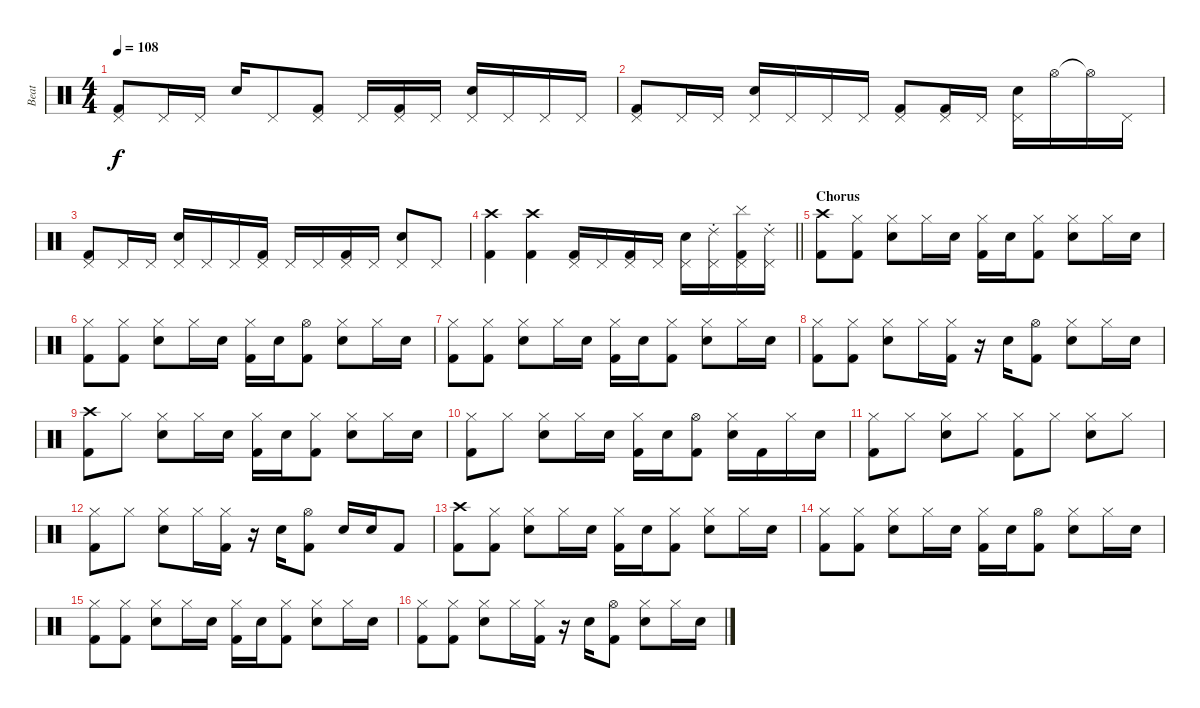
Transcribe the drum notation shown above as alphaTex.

\track ("Beat" "Beat") {instrument percussion}
\staff {score}
\articulation defaults
\ts (4 4)
\tempo 108
\clef neutral
\ks c
("Pedal Hi-Hat (hit)" "Kick (hit) 2").8{dy f} "Pedal Hi-Hat (hit)".16 "Pedal Hi-Hat (hit)".16 "Snare (hit) 2".16 "Pedal Hi-Hat (hit)".8 ("Pedal Hi-Hat (hit)" "Kick (hit) 2").8 "Pedal Hi-Hat (hit)".16 ("Pedal Hi-Hat (hit)" "Kick (hit) 2").16 "Pedal Hi-Hat (hit)".16 ("Pedal Hi-Hat (hit)" "Snare (hit) 2").16 "Pedal Hi-Hat (hit)".16 "Pedal Hi-Hat (hit)".16 "Pedal Hi-Hat (hit)".16 |
("Pedal Hi-Hat (hit)" "Kick (hit) 2").8 "Pedal Hi-Hat (hit)".16 "Pedal Hi-Hat (hit)".16 ("Pedal Hi-Hat (hit)" "Snare (hit) 2").16 "Pedal Hi-Hat (hit)".16 "Pedal Hi-Hat (hit)".16 "Pedal Hi-Hat (hit)".16 ("Pedal Hi-Hat (hit)" "Kick (hit) 2").8 ("Pedal Hi-Hat (hit)" "Kick (hit) 2").16 "Pedal Hi-Hat (hit)".16 ("Pedal Hi-Hat (hit)" "Snare (hit) 2").16 "Hi-Hat (open)".16 "Hi-Hat (open)"{t}.16 "Pedal Hi-Hat (hit)".16 |
("Pedal Hi-Hat (hit)" "Kick (hit) 2").8 "Pedal Hi-Hat (hit)".16 "Pedal Hi-Hat (hit)".16 ("Pedal Hi-Hat (hit)" "Snare (hit) 2").16 "Pedal Hi-Hat (hit)".16 "Pedal Hi-Hat (hit)".16 ("Pedal Hi-Hat (hit)" "Kick (hit) 2").16 "Pedal Hi-Hat (hit)".16 "Pedal Hi-Hat (hit)".16 ("Pedal Hi-Hat (hit)" "Kick (hit) 2").16 "Pedal Hi-Hat (hit)".16 ("Pedal Hi-Hat (hit)" "Snare (hit) 2").8 "Pedal Hi-Hat (hit)".8 |
\barLineRight lightlight
("Crash high (hit)" "Kick (hit) 2").4 ("Crash high (hit)" "Kick (hit) 2").4 ("Pedal Hi-Hat (hit)" "Kick (hit) 2").16 "Pedal Hi-Hat (hit)".16 ("Pedal Hi-Hat (hit)" "Kick (hit) 2").16 "Pedal Hi-Hat (hit)".16 ("Pedal Hi-Hat (hit)" "Snare (hit) 2").16 ("Pedal Hi-Hat (hit)" "Ride (choke) 2").16 ("Pedal Hi-Hat (hit)" "Cymbal (hit)" "Kick (hit) 2").16 ("Pedal Hi-Hat (hit)" "Ride (choke) 2").16 |
\section ("" "Chorus")
("Crash high (hit)" "Kick (hit) 2").8 ("Hi-Hat (closed)" "Kick (hit) 2").8 ("Hi-Hat (closed)" "Snare (hit) 2").8 "Hi-Hat (closed)".16 "Snare (hit) 2".16 ("Hi-Hat (closed)" "Kick (hit) 2").16 "Snare (hit) 2".16 ("Hi-Hat (closed)" "Kick (hit) 2").8 ("Hi-Hat (closed)" "Snare (hit) 2").8 "Hi-Hat (closed)".16 "Snare (hit) 2".16 |
("Hi-Hat (closed)" "Kick (hit) 2").8 ("Hi-Hat (closed)" "Kick (hit) 2").8 ("Hi-Hat (closed)" "Snare (hit) 2").8 "Hi-Hat (closed)".16 "Snare (hit) 2".16 ("Hi-Hat (closed)" "Kick (hit) 2").16 "Snare (hit) 2".16 ("Hi-Hat (open)" "Kick (hit) 2").8 ("Hi-Hat (closed)" "Snare (hit) 2").8 "Hi-Hat (closed)".16 "Snare (hit) 2".16 |
("Hi-Hat (closed)" "Kick (hit) 2").8 ("Hi-Hat (closed)" "Kick (hit) 2").8 ("Hi-Hat (closed)" "Snare (hit) 2").8 "Hi-Hat (closed)".16 "Snare (hit) 2".16 ("Hi-Hat (closed)" "Kick (hit) 2").16 "Snare (hit) 2".16 ("Hi-Hat (closed)" "Kick (hit) 2").8 ("Hi-Hat (closed)" "Snare (hit) 2").8 "Hi-Hat (closed)".16 "Snare (hit) 2".16 |
("Hi-Hat (closed)" "Kick (hit) 2").8 ("Hi-Hat (closed)" "Kick (hit) 2").8 ("Hi-Hat (closed)" "Snare (hit) 2").8 "Hi-Hat (closed)".16 ("Hi-Hat (closed)" "Kick (hit) 2").16 r.16 "Snare (hit) 2".16 ("Hi-Hat (open)" "Kick (hit) 2").8 ("Hi-Hat (closed)" "Snare (hit) 2").8 "Hi-Hat (closed)".16 "Snare (hit) 2".16 |
("Crash high (hit)" "Kick (hit) 2").8 "Hi-Hat (closed)".8 ("Hi-Hat (closed)" "Snare (hit) 2").8 "Hi-Hat (closed)".16 "Snare (hit) 2".16 ("Hi-Hat (closed)" "Kick (hit) 2").16 "Snare (hit) 2".16 ("Hi-Hat (closed)" "Kick (hit) 2").8 ("Hi-Hat (closed)" "Snare (hit) 2").8 "Hi-Hat (closed)".16 "Snare (hit) 2".16 |
("Hi-Hat (closed)" "Kick (hit) 2").8 "Hi-Hat (closed)".8 ("Hi-Hat (closed)" "Snare (hit) 2").8 "Hi-Hat (closed)".16 "Snare (hit) 2".16 ("Hi-Hat (closed)" "Kick (hit) 2").16 "Snare (hit) 2".16 ("Hi-Hat (open)" "Kick (hit) 2").8 ("Hi-Hat (closed)" "Snare (hit) 2").16 "Kick (hit) 2".16 "Hi-Hat (closed)".16 "Snare (hit) 2".16 |
("Hi-Hat (closed)" "Kick (hit) 2").8 "Hi-Hat (closed)".8 ("Hi-Hat (closed)" "Snare (hit) 2").8 "Hi-Hat (closed)".8 ("Hi-Hat (closed)" "Kick (hit) 2").8 "Hi-Hat (closed)".8 ("Hi-Hat (closed)" "Snare (hit) 2").8 "Hi-Hat (closed)".8 |
("Hi-Hat (closed)" "Kick (hit) 2").8 "Hi-Hat (closed)".8 ("Hi-Hat (closed)" "Snare (hit) 2").8 "Hi-Hat (closed)".16 ("Hi-Hat (closed)" "Kick (hit) 2").16 r.16 "Snare (hit) 2".16 ("Hi-Hat (open)" "Kick (hit) 2").8 "Snare (hit) 2".16 "Snare (hit) 2".16 "Kick (hit) 2".8 |
("Crash high (hit)" "Kick (hit) 2").8 ("Hi-Hat (closed)" "Kick (hit) 2").8 ("Hi-Hat (closed)" "Snare (hit) 2").8 "Hi-Hat (closed)".16 "Snare (hit) 2".16 ("Hi-Hat (closed)" "Kick (hit) 2").16 "Snare (hit) 2".16 ("Hi-Hat (closed)" "Kick (hit) 2").8 ("Hi-Hat (closed)" "Snare (hit) 2").8 "Hi-Hat (closed)".16 "Snare (hit) 2".16 |
("Hi-Hat (closed)" "Kick (hit) 2").8 ("Hi-Hat (closed)" "Kick (hit) 2").8 ("Hi-Hat (closed)" "Snare (hit) 2").8 "Hi-Hat (closed)".16 "Snare (hit) 2".16 ("Hi-Hat (closed)" "Kick (hit) 2").16 "Snare (hit) 2".16 ("Hi-Hat (open)" "Kick (hit) 2").8 ("Hi-Hat (closed)" "Snare (hit) 2").8 "Hi-Hat (closed)".16 "Snare (hit) 2".16 |
("Hi-Hat (closed)" "Kick (hit) 2").8 ("Hi-Hat (closed)" "Kick (hit) 2").8 ("Hi-Hat (closed)" "Snare (hit) 2").8 "Hi-Hat (closed)".16 "Snare (hit) 2".16 ("Hi-Hat (closed)" "Kick (hit) 2").16 "Snare (hit) 2".16 ("Hi-Hat (closed)" "Kick (hit) 2").8 ("Hi-Hat (closed)" "Snare (hit) 2").8 "Hi-Hat (closed)".16 "Snare (hit) 2".16 |
("Hi-Hat (closed)" "Kick (hit) 2").8 ("Hi-Hat (closed)" "Kick (hit) 2").8 ("Hi-Hat (closed)" "Snare (hit) 2").8 "Hi-Hat (closed)".16 ("Hi-Hat (closed)" "Kick (hit) 2").16 r.16 "Snare (hit) 2".16 ("Hi-Hat (open)" "Kick (hit) 2").8 ("Hi-Hat (closed)" "Snare (hit) 2").8 "Hi-Hat (closed)".16 "Snare (hit) 2".16
